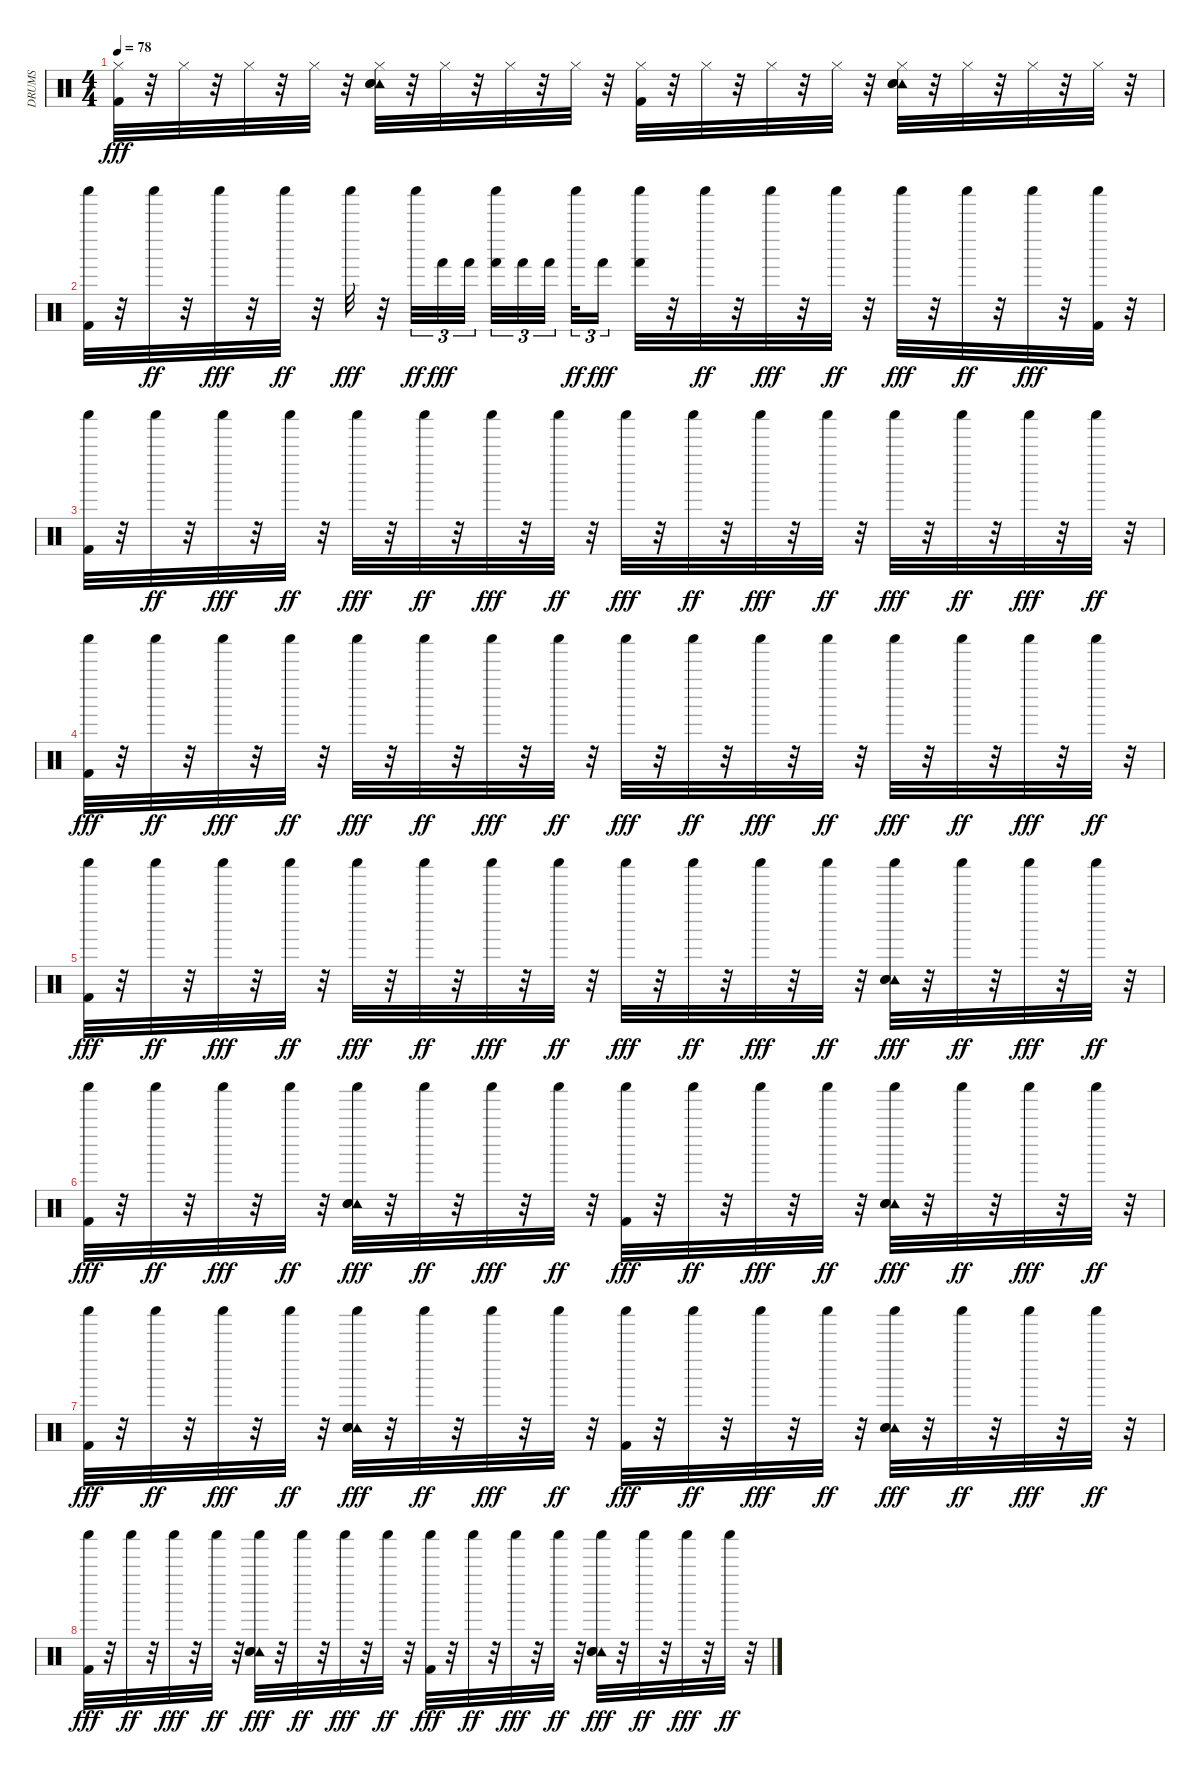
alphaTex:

\track ("DRUMS" "DRUMS") {instrument percussion}
\staff {score}
\articulation defaults
\ts (4 4)
\tempo 78
\clef neutral
\ks c
("Hi-Hat (closed)" "Kick (hit) 2").32{dy fff} r.32 "Hi-Hat (closed)".32 r.32 "Hi-Hat (closed)".32 r.32 "Hi-Hat (closed)".32 r.32 ("Hi-Hat (closed)" "Tambourine (hit)" "Snare (hit)" "Snare (hit) 2").32 r.32 "Hi-Hat (closed)".32 r.32 "Hi-Hat (closed)".32 r.32 "Hi-Hat (closed)".32 r.32 ("Hi-Hat (closed)" "Kick (hit) 2").32 r.32 "Hi-Hat (closed)".32 r.32 "Hi-Hat (closed)".32 r.32 "Hi-Hat (closed)".32 r.32 ("Hi-Hat (closed)" "Tambourine (hit)" "Snare (hit) 2" "Snare (hit)").32 r.32 "Hi-Hat (closed)".32 r.32 "Hi-Hat (closed)".32 r.32 "Hi-Hat (closed)".32 r.32 |
("Shaker (hit)" "Kick (hit) 2").32 r.32 "Shaker (hit)".32{dy ff} r.32 "Shaker (hit)".32{dy fff} r.32 "Shaker (hit)".32{dy ff} r.32 "Shaker (hit)".32{dy fff} r.32 "Shaker (hit)".32{tu (3 2) dy ff} "Hand (hit)".32{tu (3 2) dy fff} "Hand (hit)".32{tu (3 2)} ("Hand (hit)" "Shaker (hit)").32{tu (3 2)} "Hand (hit)".32{tu (3 2)} "Hand (hit)".32{tu (3 2)} "Shaker (hit)".32{tu (3 2) dy ff} "Hand (hit)".16{tu (3 2) dy fff} ("Hand (hit)" "Shaker (hit)").32 r.32 "Shaker (hit)".32{dy ff} r.32 "Shaker (hit)".32{dy fff} r.32 "Shaker (hit)".32{dy ff} r.32 "Shaker (hit)".32{dy fff} r.32 "Shaker (hit)".32{dy ff} r.32 "Shaker (hit)".32{dy fff} r.32 ("Shaker (hit)" "Kick (hit) 2").32 r.32 |
("Shaker (hit)" "Kick (hit) 2").32 r.32 "Shaker (hit)".32{dy ff} r.32 "Shaker (hit)".32{dy fff} r.32 "Shaker (hit)".32{dy ff} r.32 "Shaker (hit)".32{dy fff} r.32 "Shaker (hit)".32{dy ff} r.32 "Shaker (hit)".32{dy fff} r.32 "Shaker (hit)".32{dy ff} r.32 "Shaker (hit)".32{dy fff} r.32 "Shaker (hit)".32{dy ff} r.32 "Shaker (hit)".32{dy fff} r.32 "Shaker (hit)".32{dy ff} r.32 "Shaker (hit)".32{dy fff} r.32 "Shaker (hit)".32{dy ff} r.32 "Shaker (hit)".32{dy fff} r.32 "Shaker (hit)".32{dy ff} r.32 |
("Shaker (hit)" "Kick (hit) 2").32{dy fff} r.32 "Shaker (hit)".32{dy ff} r.32 "Shaker (hit)".32{dy fff} r.32 "Shaker (hit)".32{dy ff} r.32 "Shaker (hit)".32{dy fff} r.32 "Shaker (hit)".32{dy ff} r.32 "Shaker (hit)".32{dy fff} r.32 "Shaker (hit)".32{dy ff} r.32 "Shaker (hit)".32{dy fff} r.32 "Shaker (hit)".32{dy ff} r.32 "Shaker (hit)".32{dy fff} r.32 "Shaker (hit)".32{dy ff} r.32 "Shaker (hit)".32{dy fff} r.32 "Shaker (hit)".32{dy ff} r.32 "Shaker (hit)".32{dy fff} r.32 "Shaker (hit)".32{dy ff} r.32 |
("Shaker (hit)" "Kick (hit) 2").32{dy fff} r.32 "Shaker (hit)".32{dy ff} r.32 "Shaker (hit)".32{dy fff} r.32 "Shaker (hit)".32{dy ff} r.32 "Shaker (hit)".32{dy fff} r.32 "Shaker (hit)".32{dy ff} r.32 "Shaker (hit)".32{dy fff} r.32 "Shaker (hit)".32{dy ff} r.32 "Shaker (hit)".32{dy fff} r.32 "Shaker (hit)".32{dy ff} r.32 "Shaker (hit)".32{dy fff} r.32 "Shaker (hit)".32{dy ff} r.32 ("Tambourine (hit)" "Snare (hit) 2" "Snare (hit)" "Shaker (hit)").32{dy fff} r.32 "Shaker (hit)".32{dy ff} r.32 "Shaker (hit)".32{dy fff} r.32 "Shaker (hit)".32{dy ff} r.32 |
("Shaker (hit)" "Kick (hit) 2").32{dy fff} r.32 "Shaker (hit)".32{dy ff} r.32 "Shaker (hit)".32{dy fff} r.32 "Shaker (hit)".32{dy ff} r.32 ("Tambourine (hit)" "Snare (hit) 2" "Snare (hit)" "Shaker (hit)").32{dy fff} r.32 "Shaker (hit)".32{dy ff} r.32 "Shaker (hit)".32{dy fff} r.32 "Shaker (hit)".32{dy ff} r.32 ("Kick (hit) 2" "Shaker (hit)").32{dy fff} r.32 "Shaker (hit)".32{dy ff} r.32 "Shaker (hit)".32{dy fff} r.32 "Shaker (hit)".32{dy ff} r.32 ("Tambourine (hit)" "Snare (hit) 2" "Snare (hit)" "Shaker (hit)").32{dy fff} r.32 "Shaker (hit)".32{dy ff} r.32 "Shaker (hit)".32{dy fff} r.32 "Shaker (hit)".32{dy ff} r.32 |
("Shaker (hit)" "Kick (hit) 2").32{dy fff} r.32 "Shaker (hit)".32{dy ff} r.32 "Shaker (hit)".32{dy fff} r.32 "Shaker (hit)".32{dy ff} r.32 ("Tambourine (hit)" "Snare (hit) 2" "Snare (hit)" "Shaker (hit)").32{dy fff} r.32 "Shaker (hit)".32{dy ff} r.32 "Shaker (hit)".32{dy fff} r.32 "Shaker (hit)".32{dy ff} r.32 ("Kick (hit) 2" "Shaker (hit)").32{dy fff} r.32 "Shaker (hit)".32{dy ff} r.32 "Shaker (hit)".32{dy fff} r.32 "Shaker (hit)".32{dy ff} r.32 ("Tambourine (hit)" "Snare (hit) 2" "Snare (hit)" "Shaker (hit)").32{dy fff} r.32 "Shaker (hit)".32{dy ff} r.32 "Shaker (hit)".32{dy fff} r.32 "Shaker (hit)".32{dy ff} r.32 |
("Shaker (hit)" "Kick (hit) 2").32{dy fff} r.32 "Shaker (hit)".32{dy ff} r.32 "Shaker (hit)".32{dy fff} r.32 "Shaker (hit)".32{dy ff} r.32 ("Tambourine (hit)" "Snare (hit) 2" "Snare (hit)" "Shaker (hit)").32{dy fff} r.32 "Shaker (hit)".32{dy ff} r.32 "Shaker (hit)".32{dy fff} r.32 "Shaker (hit)".32{dy ff} r.32 ("Kick (hit) 2" "Shaker (hit)").32{dy fff} r.32 "Shaker (hit)".32{dy ff} r.32 "Shaker (hit)".32{dy fff} r.32 "Shaker (hit)".32{dy ff} r.32 ("Tambourine (hit)" "Snare (hit) 2" "Snare (hit)" "Shaker (hit)").32{dy fff} r.32 "Shaker (hit)".32{dy ff} r.32 "Shaker (hit)".32{dy fff} r.32 "Shaker (hit)".32{dy ff} r.32
